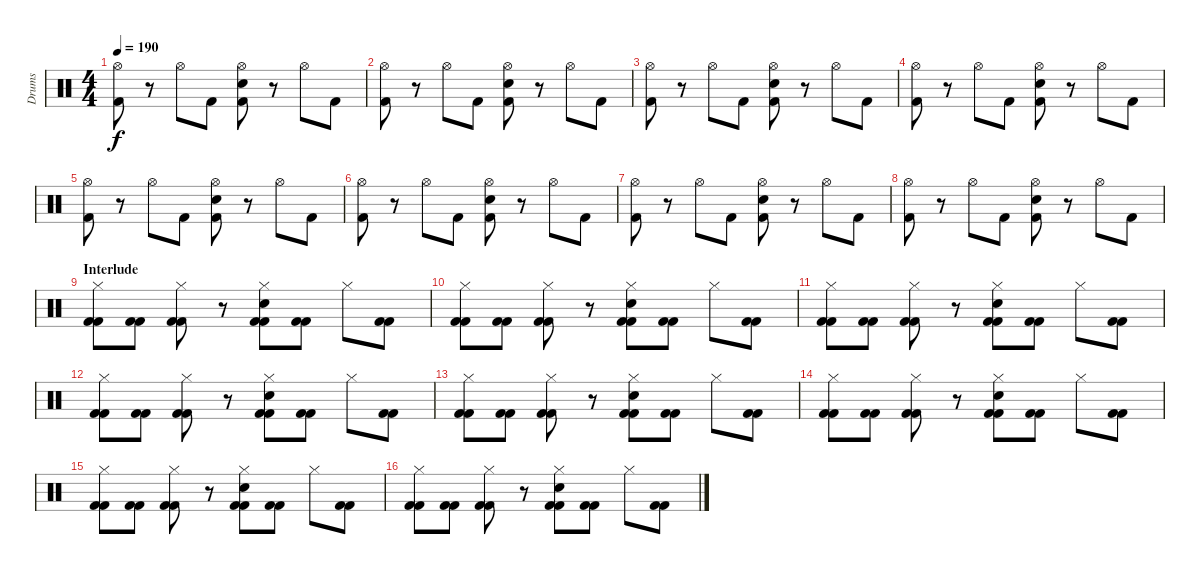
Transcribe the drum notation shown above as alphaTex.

\track ("Drums" "Drums") {instrument percussion}
\staff {score}
\articulation defaults
\ts (4 4)
\tempo 190
\clef neutral
\ks c
("Hi-Hat (open)" "Kick (hit) 2").8{dy f} r.8 "Hi-Hat (open)".8 "Kick (hit) 2".8 ("Hi-Hat (open)" "Snare (hit) 2" "Kick (hit) 2").8 r.8 "Hi-Hat (open)".8 "Kick (hit) 2".8 |
("Hi-Hat (open)" "Kick (hit) 2").8 r.8 "Hi-Hat (open)".8 "Kick (hit) 2".8 ("Hi-Hat (open)" "Snare (hit) 2" "Kick (hit) 2").8 r.8 "Hi-Hat (open)".8 "Kick (hit) 2".8 |
("Hi-Hat (open)" "Kick (hit) 2").8 r.8 "Hi-Hat (open)".8 "Kick (hit) 2".8 ("Hi-Hat (open)" "Snare (hit) 2" "Kick (hit) 2").8 r.8 "Hi-Hat (open)".8 "Kick (hit) 2".8 |
("Hi-Hat (open)" "Kick (hit) 2").8 r.8 "Hi-Hat (open)".8 "Kick (hit) 2".8 ("Hi-Hat (open)" "Snare (hit) 2" "Kick (hit) 2").8 r.8 "Hi-Hat (open)".8 "Kick (hit) 2".8 |
("Hi-Hat (open)" "Kick (hit) 2").8 r.8 "Hi-Hat (open)".8 "Kick (hit) 2".8 ("Hi-Hat (open)" "Snare (hit) 2" "Kick (hit) 2").8 r.8 "Hi-Hat (open)".8 "Kick (hit) 2".8 |
("Hi-Hat (open)" "Kick (hit) 2").8 r.8 "Hi-Hat (open)".8 "Kick (hit) 2".8 ("Hi-Hat (open)" "Snare (hit) 2" "Kick (hit) 2").8 r.8 "Hi-Hat (open)".8 "Kick (hit) 2".8 |
("Hi-Hat (open)" "Kick (hit) 2").8 r.8 "Hi-Hat (open)".8 "Kick (hit) 2".8 ("Hi-Hat (open)" "Snare (hit) 2" "Kick (hit) 2").8 r.8 "Hi-Hat (open)".8 "Kick (hit) 2".8 |
("Hi-Hat (open)" "Kick (hit) 2").8 r.8 "Hi-Hat (open)".8 "Kick (hit) 2".8 ("Hi-Hat (open)" "Snare (hit) 2" "Kick (hit) 2").8 r.8 "Hi-Hat (open)".8 "Kick (hit) 2".8 |
\section ("" "Interlude")
("Hi-Hat (closed)" "Kick (hit) 2" "Kick (hit) 2").8 ("Kick (hit) 2" "Kick (hit) 2").8 ("Hi-Hat (closed)" "Kick (hit) 2" "Kick (hit) 2").8 r.8 ("Hi-Hat (closed)" "Snare (hit) 2" "Kick (hit) 2" "Kick (hit) 2").8 ("Kick (hit) 2" "Kick (hit) 2").8 "Hi-Hat (closed)".8 ("Kick (hit) 2" "Kick (hit) 2").8 |
("Hi-Hat (closed)" "Kick (hit) 2" "Kick (hit) 2").8 ("Kick (hit) 2" "Kick (hit) 2").8 ("Hi-Hat (closed)" "Kick (hit) 2" "Kick (hit) 2").8 r.8 ("Hi-Hat (closed)" "Snare (hit) 2" "Kick (hit) 2" "Kick (hit) 2").8 ("Kick (hit) 2" "Kick (hit) 2").8 "Hi-Hat (closed)".8 ("Kick (hit) 2" "Kick (hit) 2").8 |
("Hi-Hat (closed)" "Kick (hit) 2" "Kick (hit) 2").8 ("Kick (hit) 2" "Kick (hit) 2").8 ("Hi-Hat (closed)" "Kick (hit) 2" "Kick (hit) 2").8 r.8 ("Hi-Hat (closed)" "Snare (hit) 2" "Kick (hit) 2" "Kick (hit) 2").8 ("Kick (hit) 2" "Kick (hit) 2").8 "Hi-Hat (closed)".8 ("Kick (hit) 2" "Kick (hit) 2").8 |
("Hi-Hat (closed)" "Kick (hit) 2" "Kick (hit) 2").8 ("Kick (hit) 2" "Kick (hit) 2").8 ("Hi-Hat (closed)" "Kick (hit) 2" "Kick (hit) 2").8 r.8 ("Hi-Hat (closed)" "Snare (hit) 2" "Kick (hit) 2" "Kick (hit) 2").8 ("Kick (hit) 2" "Kick (hit) 2").8 "Hi-Hat (closed)".8 ("Kick (hit) 2" "Kick (hit) 2").8 |
("Hi-Hat (closed)" "Kick (hit) 2" "Kick (hit) 2").8 ("Kick (hit) 2" "Kick (hit) 2").8 ("Hi-Hat (closed)" "Kick (hit) 2" "Kick (hit) 2").8 r.8 ("Hi-Hat (closed)" "Snare (hit) 2" "Kick (hit) 2" "Kick (hit) 2").8 ("Kick (hit) 2" "Kick (hit) 2").8 "Hi-Hat (closed)".8 ("Kick (hit) 2" "Kick (hit) 2").8 |
("Hi-Hat (closed)" "Kick (hit) 2" "Kick (hit) 2").8 ("Kick (hit) 2" "Kick (hit) 2").8 ("Hi-Hat (closed)" "Kick (hit) 2" "Kick (hit) 2").8 r.8 ("Hi-Hat (closed)" "Snare (hit) 2" "Kick (hit) 2" "Kick (hit) 2").8 ("Kick (hit) 2" "Kick (hit) 2").8 "Hi-Hat (closed)".8 ("Kick (hit) 2" "Kick (hit) 2").8 |
("Hi-Hat (closed)" "Kick (hit) 2" "Kick (hit) 2").8 ("Kick (hit) 2" "Kick (hit) 2").8 ("Hi-Hat (closed)" "Kick (hit) 2" "Kick (hit) 2").8 r.8 ("Hi-Hat (closed)" "Snare (hit) 2" "Kick (hit) 2" "Kick (hit) 2").8 ("Kick (hit) 2" "Kick (hit) 2").8 "Hi-Hat (closed)".8 ("Kick (hit) 2" "Kick (hit) 2").8 |
("Hi-Hat (closed)" "Kick (hit) 2" "Kick (hit) 2").8 ("Kick (hit) 2" "Kick (hit) 2").8 ("Hi-Hat (closed)" "Kick (hit) 2" "Kick (hit) 2").8 r.8 ("Hi-Hat (closed)" "Snare (hit) 2" "Kick (hit) 2" "Kick (hit) 2").8 ("Kick (hit) 2" "Kick (hit) 2").8 "Hi-Hat (closed)".8 ("Kick (hit) 2" "Kick (hit) 2").8
